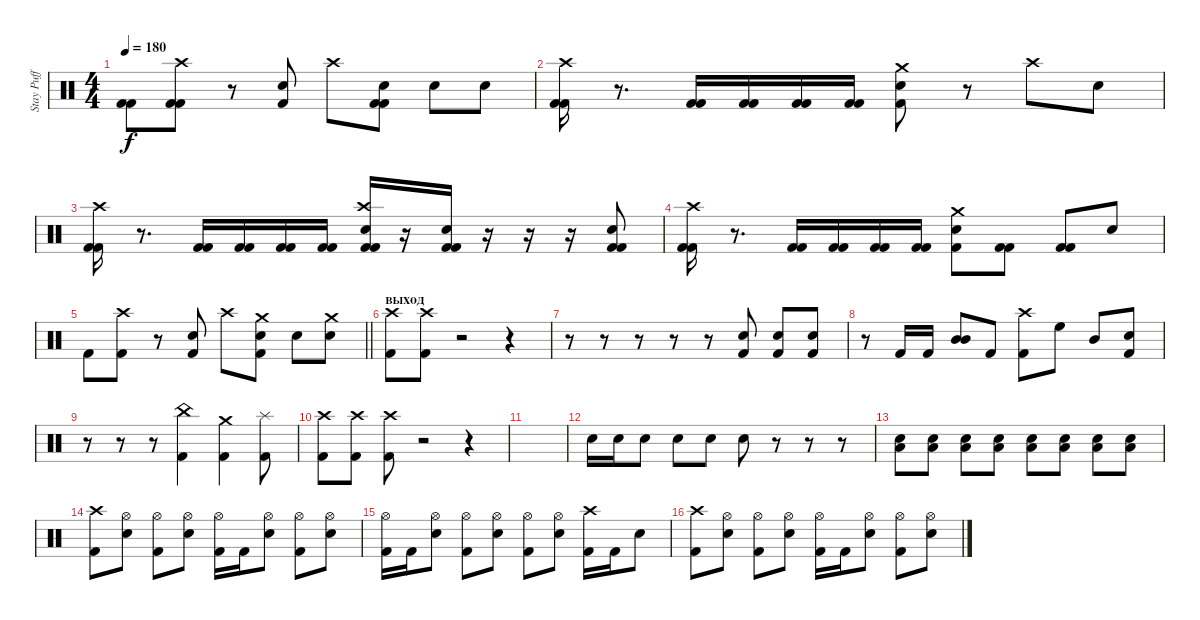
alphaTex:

\track ("Stay Puff" "Stay Puff") {instrument percussion}
\staff {score}
\articulation defaults
\ts (4 4)
\tempo 180
\clef neutral
\ks c
("Kick (hit) 2" "Kick (hit) 2").8{dy f} ("Crash high (hit)" "Kick (hit) 2" "Kick (hit) 2").8 r.8 ("Electric Snare (hit)" "Kick (hit) 2").8 "Crash high (hit)".8 ("Kick (hit) 2" "Electric Snare (hit)" "Kick (hit) 2").8 "Electric Snare (hit)".8 "Electric Snare (hit)".8 |
("Crash high (hit)" "Kick (hit) 2" "Kick (hit) 2").16 r.8{d} ("Kick (hit) 2" "Kick (hit) 2").16 ("Kick (hit) 2" "Kick (hit) 2").16 ("Kick (hit) 2" "Kick (hit) 2").16 ("Kick (hit) 2" "Kick (hit) 2").16 ("Crash medium (hit)" "Electric Snare (hit)" "Kick (hit) 2").8 r.8 "Crash high (hit)".8 "Electric Snare (hit)".8 |
("Crash high (hit)" "Kick (hit) 2" "Kick (hit) 2").16 r.8{d} ("Kick (hit) 2" "Kick (hit) 2").16 ("Kick (hit) 2" "Kick (hit) 2").16 ("Kick (hit) 2" "Kick (hit) 2").16 ("Kick (hit) 2" "Kick (hit) 2").16 ("Crash high (hit)" "Electric Snare (hit)" "Kick (hit) 2" "Kick (hit) 2").16 r.16 ("Electric Snare (hit)" "Kick (hit) 2" "Kick (hit) 2").16 r.16 r.16 r.16 ("Electric Snare (hit)" "Kick (hit) 2" "Kick (hit) 2").8 |
("Crash high (hit)" "Kick (hit) 2" "Kick (hit) 2").16 r.8{d} ("Kick (hit) 2" "Kick (hit) 2").16 ("Kick (hit) 2" "Kick (hit) 2").16 ("Kick (hit) 2" "Kick (hit) 2").16 ("Kick (hit) 2" "Kick (hit) 2").16 ("Crash medium (hit)" "Electric Snare (hit)" "Kick (hit) 2").8 ("Kick (hit) 2" "Kick (hit) 2").8 ("Kick (hit) 2" "Kick (hit) 2").8 "Electric Snare (hit)".8 |
\barLineRight lightlight "Kick (hit) 2".8
("Crash high (hit)" "Kick (hit) 2").8 r.8 ("Electric Snare (hit)" "Kick (hit) 2").8 "Crash high (hit)".8 ("Crash medium (hit)" "Electric Snare (hit)" "Kick (hit) 2").8 "Electric Snare (hit)".8 ("Crash medium (hit)" "Electric Snare (hit)").8 |
\section ("" "выход")
("Crash high (hit)" "Kick (hit) 2").8 ("Crash high (hit)" "Kick (hit) 2").8 r.2{volume 0} r.4{volume 13} |
r.8 r.8 r.8 r.8 r.8 ("Snare (hit) 2" "Kick (hit) 2").8 ("Snare (hit) 2" "Kick (hit) 2").8 ("Snare (hit) 2" "Kick (hit) 2").8 |
r.8 "Kick (hit) 2".16 "Kick (hit) 2".16 ("Mid Tom (hit)" "Mid Tom (hit)").8 "Kick (hit) 2".8 ("Crash high (hit)" "Kick (hit) 2").8 "High Floor Tom (hit)".8 "Mid Tom (hit)".8 ("Snare (hit) 2" "Kick (hit) 2").8 |
r.8 r.8 r.8 ("China (hit)" "Kick (hit) 2").4 ("Crash medium (hit)" "Kick (hit) 2").4 ("Splash (hit)" "Kick (hit) 2").8 |
("Crash high (hit)" "Kick (hit) 2").8 ("Crash high (hit)" "Kick (hit) 2").8 ("Crash high (hit)" "Kick (hit) 2").8 r.2{volume 0} r.4{volume 13} |
|
"Snare (hit) 2".16 "Snare (hit) 2".16 "Snare (hit) 2".8 "Snare (hit) 2".8 "Snare (hit) 2".8 "Snare (hit) 2".8 r.8 r.8 r.8 |
("Electric Snare (hit)" "Low Tom (hit)").8 ("Electric Snare (hit)" "Low Tom (hit)").8 ("Electric Snare (hit)" "Low Tom (hit)").8 ("Electric Snare (hit)" "Low Tom (hit)").8 ("Electric Snare (hit)" "Low Tom (hit)").8 ("Electric Snare (hit)" "Low Tom (hit)").8 ("Electric Snare (hit)" "Low Tom (hit)").8 ("Electric Snare (hit)" "Low Tom (hit)").8 |
("Crash high (hit)" "Kick (hit) 2").8 ("Hi-Hat (open)" "Snare (hit) 2").8 ("Hi-Hat (open)" "Kick (hit) 2").8 ("Hi-Hat (open)" "Snare (hit) 2").8 ("Hi-Hat (open)" "Kick (hit) 2").16 "Kick (hit) 2".16 ("Hi-Hat (open)" "Snare (hit) 2").8 ("Hi-Hat (open)" "Kick (hit) 2").8 ("Hi-Hat (open)" "Snare (hit) 2").8 |
("Hi-Hat (open)" "Kick (hit) 2").16 "Kick (hit) 2".16 ("Hi-Hat (open)" "Snare (hit) 2").8 ("Hi-Hat (open)" "Kick (hit) 2").8 ("Hi-Hat (open)" "Snare (hit) 2").8 ("Hi-Hat (open)" "Kick (hit) 2").8 ("Hi-Hat (open)" "Snare (hit) 2").8 ("Crash high (hit)" "Kick (hit) 2").16 "Kick (hit) 2".16 "Snare (hit) 2".8 |
("Crash high (hit)" "Kick (hit) 2").8 ("Hi-Hat (open)" "Snare (hit) 2").8 ("Hi-Hat (open)" "Kick (hit) 2").8 ("Hi-Hat (open)" "Snare (hit) 2").8 ("Hi-Hat (open)" "Kick (hit) 2").16 "Kick (hit) 2".16 ("Hi-Hat (open)" "Snare (hit) 2").8 ("Hi-Hat (open)" "Kick (hit) 2").8 ("Hi-Hat (open)" "Snare (hit) 2").8
